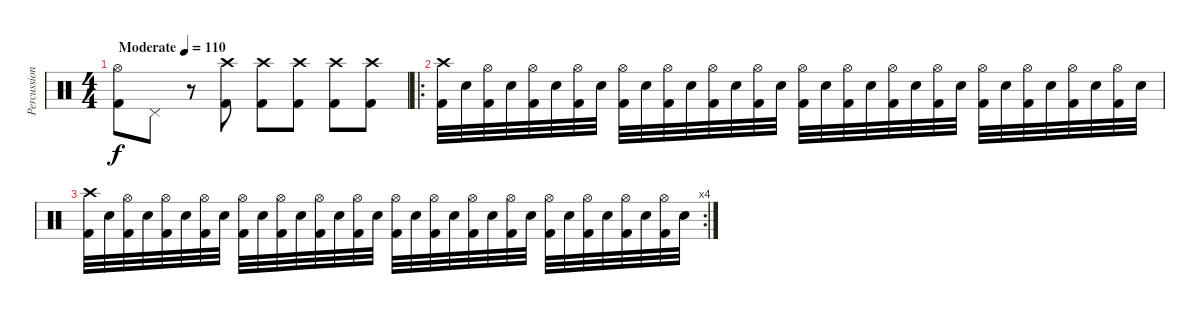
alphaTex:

\track ("Percussion" "Percussion") {instrument percussion}
\staff {score}
\articulation defaults
\ts (4 4)
\tempo (110 "Moderate")
\clef neutral
\ks c
("Kick (hit) 2" "Hi-Hat (open)").8{dy f} "Pedal Hi-Hat (hit)".8 r.8 ("Kick (hit) 2" "Crash high (hit)").8 ("Kick (hit) 2" "Crash high (hit)").8 ("Kick (hit) 2" "Crash high (hit)").8 ("Kick (hit) 2" "Crash high (hit)").8 ("Kick (hit) 2" "Crash high (hit)").8 |
\ro
("Kick (hit) 2" "Crash high (hit)").32 "Electric Snare (hit)".32 ("Kick (hit) 2" "Hi-Hat (open)").32 "Electric Snare (hit)".32 ("Kick (hit) 2" "Hi-Hat (open)").32 "Electric Snare (hit)".32 ("Kick (hit) 2" "Hi-Hat (open)").32 "Electric Snare (hit)".32 ("Kick (hit) 2" "Hi-Hat (open)").32 "Electric Snare (hit)".32 ("Kick (hit) 2" "Hi-Hat (open)").32 "Electric Snare (hit)".32 ("Kick (hit) 2" "Hi-Hat (open)").32 "Electric Snare (hit)".32 ("Kick (hit) 2" "Hi-Hat (open)").32 "Electric Snare (hit)".32 ("Kick (hit) 2" "Hi-Hat (open)").32 "Electric Snare (hit)".32 ("Kick (hit) 2" "Hi-Hat (open)").32 "Electric Snare (hit)".32 ("Kick (hit) 2" "Hi-Hat (open)").32 "Electric Snare (hit)".32 ("Kick (hit) 2" "Hi-Hat (open)").32 "Electric Snare (hit)".32 ("Kick (hit) 2" "Hi-Hat (open)").32 "Electric Snare (hit)".32 ("Kick (hit) 2" "Hi-Hat (open)").32 "Electric Snare (hit)".32 ("Kick (hit) 2" "Hi-Hat (open)").32 "Electric Snare (hit)".32 ("Kick (hit) 2" "Hi-Hat (open)").32 "Electric Snare (hit)".32 |
\rc 4
("Kick (hit) 2" "Crash high (hit)").32 "Electric Snare (hit)".32 ("Kick (hit) 2" "Hi-Hat (open)").32 "Electric Snare (hit)".32 ("Kick (hit) 2" "Hi-Hat (open)").32 "Electric Snare (hit)".32 ("Kick (hit) 2" "Hi-Hat (open)").32 "Electric Snare (hit)".32 ("Kick (hit) 2" "Hi-Hat (open)").32 "Electric Snare (hit)".32 ("Kick (hit) 2" "Hi-Hat (open)").32 "Electric Snare (hit)".32 ("Kick (hit) 2" "Hi-Hat (open)").32 "Electric Snare (hit)".32 ("Kick (hit) 2" "Hi-Hat (open)").32 "Electric Snare (hit)".32 ("Kick (hit) 2" "Hi-Hat (open)").32 "Electric Snare (hit)".32 ("Kick (hit) 2" "Hi-Hat (open)").32 "Electric Snare (hit)".32 ("Kick (hit) 2" "Hi-Hat (open)").32 "Electric Snare (hit)".32 ("Kick (hit) 2" "Hi-Hat (open)").32 "Electric Snare (hit)".32 ("Kick (hit) 2" "Hi-Hat (open)").32 "Electric Snare (hit)".32 ("Kick (hit) 2" "Hi-Hat (open)").32 "Electric Snare (hit)".32 ("Kick (hit) 2" "Hi-Hat (open)").32 "Electric Snare (hit)".32 ("Kick (hit) 2" "Hi-Hat (open)").32 "Electric Snare (hit)".32
